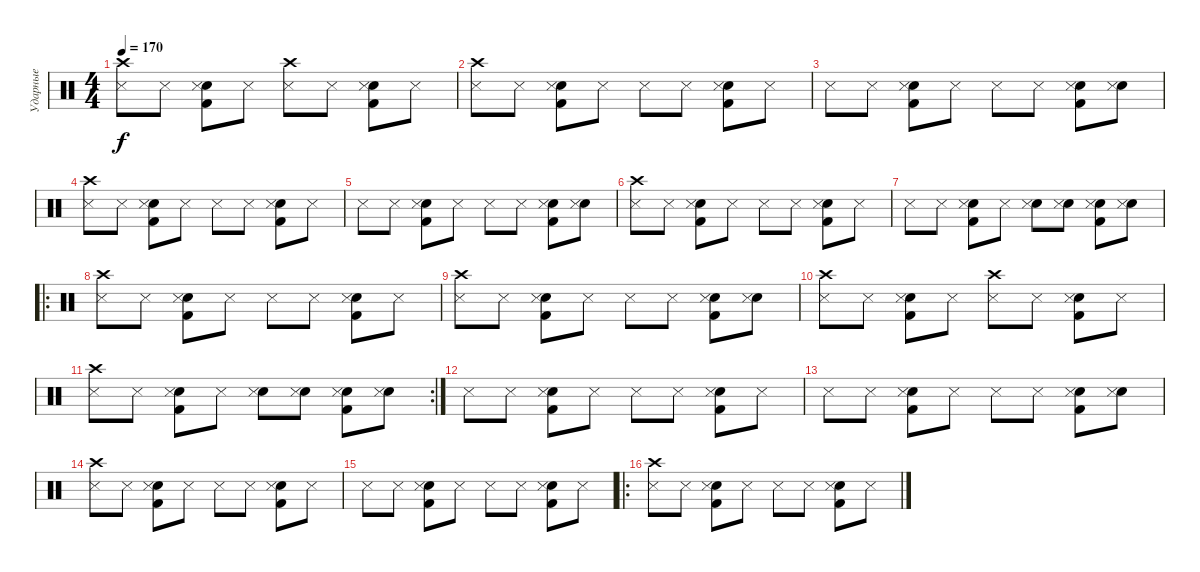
\track ("Ударные" "Ударные") {instrument percussion}
\staff {score}
\articulation defaults
\ts (4 4)
\tempo 170
\clef neutral
\ks c
("Crash high (hit)" "Snare (side stick) 3").8{dy f} "Snare (side stick) 3".8 ("Kick (hit) 2" "Snare (hit) 2" "Snare (side stick) 3").8 "Snare (side stick) 3".8 ("Crash high (hit)" "Snare (side stick) 3").8 "Snare (side stick) 3".8 ("Kick (hit) 2" "Snare (hit) 2" "Snare (side stick) 3").8 "Snare (side stick) 3".8 |
("Crash high (hit)" "Snare (side stick) 3").8 "Snare (side stick) 3".8 ("Kick (hit) 2" "Snare (hit) 2" "Snare (side stick) 3").8 "Snare (side stick) 3".8 "Snare (side stick) 3".8 "Snare (side stick) 3".8 ("Kick (hit) 2" "Snare (hit) 2" "Snare (side stick) 3").8 "Snare (side stick) 3".8 |
"Snare (side stick) 3".8 "Snare (side stick) 3".8 ("Kick (hit) 2" "Snare (hit) 2" "Snare (side stick) 3").8 "Snare (side stick) 3".8 "Snare (side stick) 3".8 "Snare (side stick) 3".8 ("Kick (hit) 2" "Snare (hit) 2" "Snare (side stick) 3").8 ("Snare (hit) 2" "Snare (side stick) 3").8 |
("Crash high (hit)" "Snare (side stick) 3").8 "Snare (side stick) 3".8 ("Kick (hit) 2" "Snare (hit) 2" "Snare (side stick) 3").8 "Snare (side stick) 3".8 "Snare (side stick) 3".8 "Snare (side stick) 3".8 ("Kick (hit) 2" "Snare (hit) 2" "Snare (side stick) 3").8 "Snare (side stick) 3".8 |
"Snare (side stick) 3".8 "Snare (side stick) 3".8 ("Kick (hit) 2" "Snare (hit) 2" "Snare (side stick) 3").8 "Snare (side stick) 3".8 "Snare (side stick) 3".8 "Snare (side stick) 3".8 ("Kick (hit) 2" "Snare (hit) 2" "Snare (side stick) 3").8 ("Snare (hit) 2" "Snare (side stick) 3").8 |
("Crash high (hit)" "Snare (side stick) 3").8 "Snare (side stick) 3".8 ("Kick (hit) 2" "Snare (hit) 2" "Snare (side stick) 3").8 "Snare (side stick) 3".8 "Snare (side stick) 3".8 "Snare (side stick) 3".8 ("Kick (hit) 2" "Snare (hit) 2" "Snare (side stick) 3").8 "Snare (side stick) 3".8 |
"Snare (side stick) 3".8 "Snare (side stick) 3".8 ("Kick (hit) 2" "Snare (hit) 2" "Snare (side stick) 3").8 "Snare (side stick) 3".8 ("Snare (hit) 2" "Snare (side stick) 3").8 ("Snare (hit) 2" "Snare (side stick) 3").8 ("Kick (hit) 2" "Snare (hit) 2" "Snare (side stick) 3").8 ("Snare (hit) 2" "Snare (side stick) 3").8 |
\ro
("Crash high (hit)" "Snare (side stick) 3").8 "Snare (side stick) 3".8 ("Kick (hit) 2" "Snare (hit) 2" "Snare (side stick) 3").8 "Snare (side stick) 3".8 "Snare (side stick) 3".8 "Snare (side stick) 3".8 ("Kick (hit) 2" "Snare (hit) 2" "Snare (side stick) 3").8 "Snare (side stick) 3".8 |
("Crash high (hit)" "Snare (side stick) 3").8 "Snare (side stick) 3".8 ("Kick (hit) 2" "Snare (hit) 2" "Snare (side stick) 3").8 "Snare (side stick) 3".8 "Snare (side stick) 3".8 "Snare (side stick) 3".8 ("Kick (hit) 2" "Snare (hit) 2" "Snare (side stick) 3").8 ("Snare (hit) 2" "Snare (side stick) 3").8 |
("Crash high (hit)" "Snare (side stick) 3").8 "Snare (side stick) 3".8 ("Kick (hit) 2" "Snare (hit) 2" "Snare (side stick) 3").8 "Snare (side stick) 3".8 ("Crash high (hit)" "Snare (side stick) 3").8 "Snare (side stick) 3".8 ("Kick (hit) 2" "Snare (hit) 2" "Snare (side stick) 3").8 "Snare (side stick) 3".8 |
\rc 2
("Crash high (hit)" "Snare (side stick) 3").8 "Snare (side stick) 3".8 ("Kick (hit) 2" "Snare (hit) 2" "Snare (side stick) 3").8 "Snare (side stick) 3".8 ("Snare (hit) 2" "Snare (side stick) 3").8 ("Snare (hit) 2" "Snare (side stick) 3").8 ("Kick (hit) 2" "Snare (hit) 2" "Snare (side stick) 3").8 ("Snare (hit) 2" "Snare (side stick) 3").8 |
"Snare (side stick) 3".8 "Snare (side stick) 3".8 ("Kick (hit) 2" "Snare (hit) 2" "Snare (side stick) 3").8 "Snare (side stick) 3".8 "Snare (side stick) 3".8 "Snare (side stick) 3".8 ("Kick (hit) 2" "Snare (hit) 2" "Snare (side stick) 3").8 "Snare (side stick) 3".8 |
"Snare (side stick) 3".8 "Snare (side stick) 3".8 ("Kick (hit) 2" "Snare (hit) 2" "Snare (side stick) 3").8 "Snare (side stick) 3".8 "Snare (side stick) 3".8 "Snare (side stick) 3".8 ("Kick (hit) 2" "Snare (hit) 2" "Snare (side stick) 3").8 ("Snare (hit) 2" "Snare (side stick) 3").8 |
("Crash high (hit)" "Snare (side stick) 3").8 "Snare (side stick) 3".8 ("Kick (hit) 2" "Snare (hit) 2" "Snare (side stick) 3").8 "Snare (side stick) 3".8 "Snare (side stick) 3".8 "Snare (side stick) 3".8 ("Kick (hit) 2" "Snare (hit) 2" "Snare (side stick) 3").8 "Snare (side stick) 3".8 |
"Snare (side stick) 3".8 "Snare (side stick) 3".8 ("Kick (hit) 2" "Snare (hit) 2" "Snare (side stick) 3").8 "Snare (side stick) 3".8 "Snare (side stick) 3".8 "Snare (side stick) 3".8 ("Kick (hit) 2" "Snare (hit) 2" "Snare (side stick) 3").8 "Snare (side stick) 3".8 |
\ro
("Crash high (hit)" "Snare (side stick) 3").8 "Snare (side stick) 3".8 ("Kick (hit) 2" "Snare (hit) 2" "Snare (side stick) 3").8 "Snare (side stick) 3".8 "Snare (side stick) 3".8 "Snare (side stick) 3".8 ("Kick (hit) 2" "Snare (hit) 2" "Snare (side stick) 3").8 "Snare (side stick) 3".8
